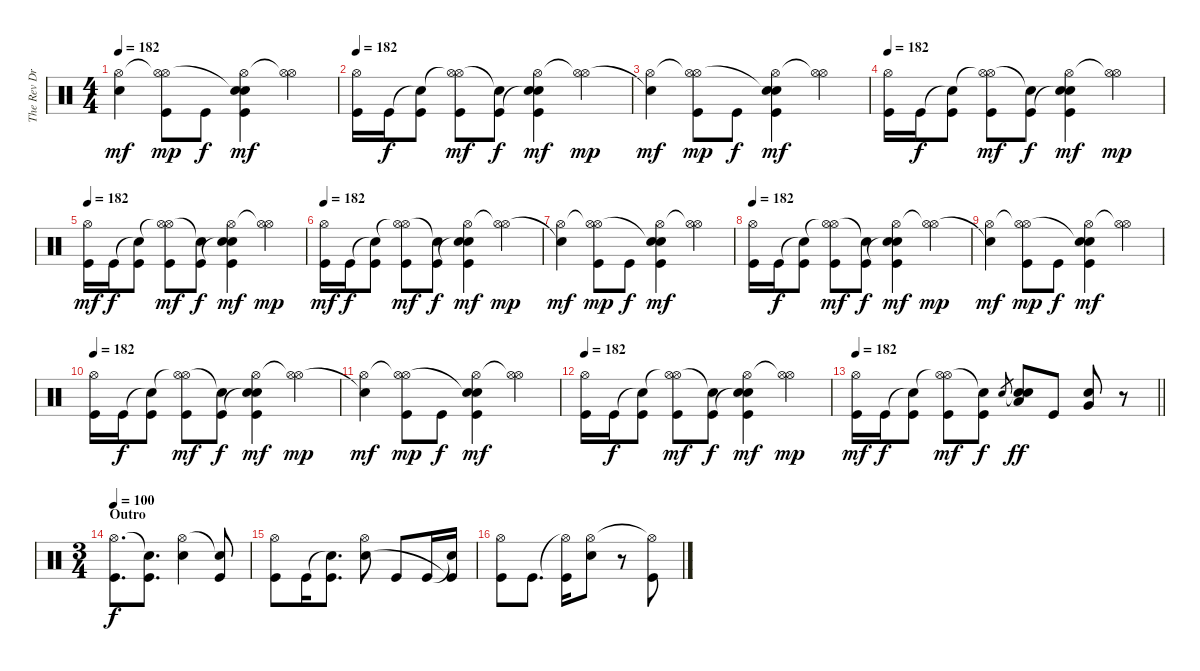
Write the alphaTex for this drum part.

\track ("The Rev Drums" "The Rev Dr") {instrument percussion}
\staff {score}
\articulation defaults
\ts (4 4)
\tempo 182
\clef neutral
\ks c
("Hi-Hat (open)" "Snare (hit)"{t}).4{dy mf} ("Hi-Hat (open)"{t} "Hi-Hat (open)" "Kick (hit)").8{dy mp} "Kick (hit)".8{dy f} ("Hi-Hat (open)" "Snare (hit)"{t} "Electric Snare (hit)" "Kick (hit)").4{dy mf} ("Hi-Hat (open)"{t} "Hi-Hat (open)").4 |
\tempo 182
("Hi-Hat (open)" "Kick (hit)").16 "Kick (hit)".16{dy f} ("Snare (hit)"{t} "Kick (hit)").8 ("Hi-Hat (open)"{t} "Hi-Hat (open)" "Kick (hit)").8{dy mf} ("Snare (hit)"{t} "Kick (hit)").8{dy f} ("Hi-Hat (open)" "Snare (hit)"{t} "Electric Snare (hit)" "Kick (hit)").4{dy mf} ("Hi-Hat (open)"{t} "Hi-Hat (open)").4{dy mp} |
("Hi-Hat (open)" "Snare (hit)"{t}).4{dy mf} ("Hi-Hat (open)"{t} "Hi-Hat (open)" "Kick (hit)").8{dy mp} "Kick (hit)".8{dy f} ("Hi-Hat (open)" "Snare (hit)"{t} "Electric Snare (hit)" "Kick (hit)").4{dy mf} ("Hi-Hat (open)"{t} "Hi-Hat (open)").4 |
\tempo 182
("Hi-Hat (open)" "Kick (hit)").16 "Kick (hit)".16{dy f} ("Snare (hit)"{t} "Kick (hit)").8 ("Hi-Hat (open)"{t} "Hi-Hat (open)" "Kick (hit)").8{dy mf} ("Snare (hit)"{t} "Kick (hit)").8{dy f} ("Hi-Hat (open)" "Snare (hit)"{t} "Electric Snare (hit)" "Kick (hit)").4{dy mf} ("Hi-Hat (open)"{t} "Hi-Hat (open)").4{dy mp} |
\tempo 182
("Hi-Hat (open)" "Kick (hit)").16{dy mf} "Kick (hit)".16{dy f} ("Snare (hit)"{t} "Kick (hit)").8 ("Hi-Hat (open)"{t} "Hi-Hat (open)" "Kick (hit)").8{dy mf} ("Snare (hit)"{t} "Kick (hit)").8{dy f} ("Hi-Hat (open)" "Snare (hit)"{t} "Electric Snare (hit)" "Kick (hit)").4{dy mf} ("Hi-Hat (open)"{t} "Hi-Hat (open)").4{dy mp} |
\tempo 182
("Hi-Hat (open)" "Kick (hit)").16{dy mf} "Kick (hit)".16{dy f} ("Snare (hit)"{t} "Kick (hit)").8 ("Hi-Hat (open)"{t} "Hi-Hat (open)" "Kick (hit)").8{dy mf} ("Snare (hit)"{t} "Kick (hit)").8{dy f} ("Hi-Hat (open)" "Snare (hit)"{t} "Electric Snare (hit)" "Kick (hit)").4{dy mf} ("Hi-Hat (open)"{t} "Hi-Hat (open)").4{dy mp} |
("Hi-Hat (open)" "Snare (hit)"{t}).4{dy mf} ("Hi-Hat (open)"{t} "Hi-Hat (open)" "Kick (hit)").8{dy mp} "Kick (hit)".8{dy f} ("Hi-Hat (open)" "Snare (hit)"{t} "Electric Snare (hit)" "Kick (hit)").4{dy mf} ("Hi-Hat (open)"{t} "Hi-Hat (open)").4 |
\tempo 182
("Hi-Hat (open)" "Kick (hit)").16 "Kick (hit)".16{dy f} ("Snare (hit)"{t} "Kick (hit)").8 ("Hi-Hat (open)"{t} "Hi-Hat (open)" "Kick (hit)").8{dy mf} ("Snare (hit)"{t} "Kick (hit)").8{dy f} ("Hi-Hat (open)" "Snare (hit)"{t} "Electric Snare (hit)" "Kick (hit)").4{dy mf} ("Hi-Hat (open)"{t} "Hi-Hat (open)").4{dy mp} |
("Hi-Hat (open)" "Snare (hit)"{t}).4{dy mf} ("Hi-Hat (open)"{t} "Hi-Hat (open)" "Kick (hit)").8{dy mp} "Kick (hit)".8{dy f} ("Hi-Hat (open)" "Snare (hit)"{t} "Electric Snare (hit)" "Kick (hit)").4{dy mf} ("Hi-Hat (open)"{t} "Hi-Hat (open)").4 |
\tempo 182
("Hi-Hat (open)" "Kick (hit)").16 "Kick (hit)".16{dy f} ("Snare (hit)"{t} "Kick (hit)").8 ("Hi-Hat (open)"{t} "Hi-Hat (open)" "Kick (hit)").8{dy mf} ("Snare (hit)"{t} "Kick (hit)").8{dy f} ("Hi-Hat (open)" "Snare (hit)"{t} "Electric Snare (hit)" "Kick (hit)").4{dy mf} ("Hi-Hat (open)"{t} "Hi-Hat (open)").4{dy mp} |
("Hi-Hat (open)" "Snare (hit)"{t}).4{dy mf} ("Hi-Hat (open)"{t} "Hi-Hat (open)" "Kick (hit)").8{dy mp} "Kick (hit)".8{dy f} ("Hi-Hat (open)" "Snare (hit)"{t} "Electric Snare (hit)" "Kick (hit)").4{dy mf} ("Hi-Hat (open)"{t} "Hi-Hat (open)").4 |
\tempo 182
("Hi-Hat (open)" "Kick (hit)").16 "Kick (hit)".16{dy f} ("Snare (hit)"{t} "Kick (hit)").8 ("Hi-Hat (open)"{t} "Hi-Hat (open)" "Kick (hit)").8{dy mf} ("Snare (hit)"{t} "Kick (hit)").8{dy f} ("Hi-Hat (open)" "Snare (hit)"{t} "Electric Snare (hit)" "Kick (hit)").4{dy mf} ("Hi-Hat (open)"{t} "Hi-Hat (open)").4{dy mp} |
\tempo 182
\barLineRight lightlight
("Hi-Hat (open)" "Kick (hit)").16{dy mf} "Kick (hit)".16{dy f} ("Snare (hit)"{t} "Kick (hit)").8 ("Hi-Hat (open)"{t} "Hi-Hat (open)" "Kick (hit)").8{dy mf} ("Snare (hit)"{t} "Kick (hit)").8{dy f} "Electric Snare (hit)".8{gr} ("Snare (hit)"{t} "Low Tom (hit)" "Electric Snare (hit)").8{dy ff} "Kick (hit)".8 ("Very Low Tom (hit)" "Electric Snare (hit)").8 r.8 |
\ts (3 4)
\section ("" "Outro")
\tempo 100
("Hi-Hat (open)" "Kick (hit)").8{d dy f} ("Snare (hit)"{t} "Kick (hit)").8{d} ("Hi-Hat (open)" "Electric Snare (hit)").4 ("Snare (hit)"{t} "Kick (hit)").8 |
("Hi-Hat (open)" "Kick (hit)").8 "Kick (hit)".16 ("Snare (hit)"{t} "Kick (hit)").8{d} ("Hi-Hat (open)" "Electric Snare (hit)").8 "Kick (hit)".8 "Kick (hit)".16 ("Snare (hit)"{t} "Kick (hit)"{t}).16 |
("Hi-Hat (open)" "Kick (hit)").8 "Kick (hit)".8{d} ("Hi-Hat (open)"{t} "Kick (hit)").16 ("Hi-Hat (open)" "Electric Snare (hit)").8 r.8 ("Hi-Hat (open)"{t} "Kick (hit)").8
